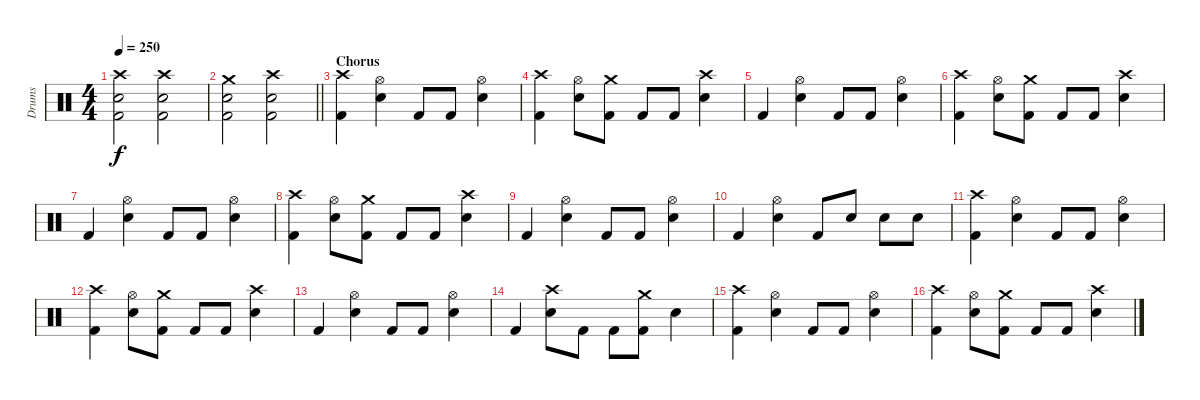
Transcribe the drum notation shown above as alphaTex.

\track ("Drums" "Drums") {instrument percussion}
\staff {score}
\articulation defaults
\ts (4 4)
\tempo 250
\clef neutral
\ks c
("Crash high (hit)" "Snare (hit) 2" "Kick (hit) 2").2{dy f} ("Crash high (hit)" "Snare (hit) 2" "Kick (hit) 2").2 |
\barLineRight lightlight
("Crash medium (hit)" "Snare (hit) 2" "Kick (hit) 2").2 ("Crash high (hit)" "Snare (hit) 2" "Kick (hit) 2").2 |
\section ("" "Chorus")
("Crash high (hit)" "Kick (hit) 2").4 ("Hi-Hat (open)" "Snare (hit) 2").4 "Kick (hit) 2".8 "Kick (hit) 2".8 ("Hi-Hat (open)" "Snare (hit) 2").4 |
("Crash high (hit)" "Kick (hit) 2").4 ("Hi-Hat (open)" "Snare (hit) 2").8 ("Crash medium (hit)" "Kick (hit) 2").8 "Kick (hit) 2".8 "Kick (hit) 2".8 ("Crash high (hit)" "Snare (hit) 2").4 |
"Kick (hit) 2".4 ("Hi-Hat (open)" "Snare (hit) 2").4 "Kick (hit) 2".8 "Kick (hit) 2".8 ("Hi-Hat (open)" "Snare (hit) 2").4 |
("Crash high (hit)" "Kick (hit) 2").4 ("Hi-Hat (open)" "Snare (hit) 2").8 ("Crash medium (hit)" "Kick (hit) 2").8 "Kick (hit) 2".8 "Kick (hit) 2".8 ("Crash high (hit)" "Snare (hit) 2").4 |
"Kick (hit) 2".4 ("Hi-Hat (open)" "Snare (hit) 2").4 "Kick (hit) 2".8 "Kick (hit) 2".8 ("Hi-Hat (open)" "Snare (hit) 2").4 |
("Crash high (hit)" "Kick (hit) 2").4 ("Hi-Hat (open)" "Snare (hit) 2").8 ("Crash medium (hit)" "Kick (hit) 2").8 "Kick (hit) 2".8 "Kick (hit) 2".8 ("Crash high (hit)" "Snare (hit) 2").4 |
"Kick (hit) 2".4 ("Hi-Hat (open)" "Snare (hit) 2").4 "Kick (hit) 2".8 "Kick (hit) 2".8 ("Hi-Hat (open)" "Snare (hit) 2").4 |
"Kick (hit) 2".4 ("Hi-Hat (open)" "Snare (hit) 2").4 "Kick (hit) 2".8 "Snare (hit) 2".8 "Snare (hit) 2".8 "Snare (hit) 2".8 |
("Crash high (hit)" "Kick (hit) 2").4 ("Hi-Hat (open)" "Snare (hit) 2").4 "Kick (hit) 2".8 "Kick (hit) 2".8 ("Hi-Hat (open)" "Snare (hit) 2").4 |
("Crash high (hit)" "Kick (hit) 2").4 ("Hi-Hat (open)" "Snare (hit) 2").8 ("Crash medium (hit)" "Kick (hit) 2").8 "Kick (hit) 2".8 "Kick (hit) 2".8 ("Crash high (hit)" "Snare (hit) 2").4 |
"Kick (hit) 2".4 ("Hi-Hat (open)" "Snare (hit) 2").4 "Kick (hit) 2".8 "Kick (hit) 2".8 ("Hi-Hat (open)" "Snare (hit) 2").4 |
"Kick (hit) 2".4 ("Crash high (hit)" "Snare (hit) 2").8 "Kick (hit) 2".8 "Kick (hit) 2".8 ("Crash medium (hit)" "Kick (hit) 2").8 "Snare (hit) 2".4 |
("Crash high (hit)" "Kick (hit) 2").4 ("Hi-Hat (open)" "Snare (hit) 2").4 "Kick (hit) 2".8 "Kick (hit) 2".8 ("Hi-Hat (open)" "Snare (hit) 2").4 |
("Crash high (hit)" "Kick (hit) 2").4 ("Hi-Hat (open)" "Snare (hit) 2").8 ("Crash medium (hit)" "Kick (hit) 2").8 "Kick (hit) 2".8 "Kick (hit) 2".8 ("Crash high (hit)" "Snare (hit) 2").4
